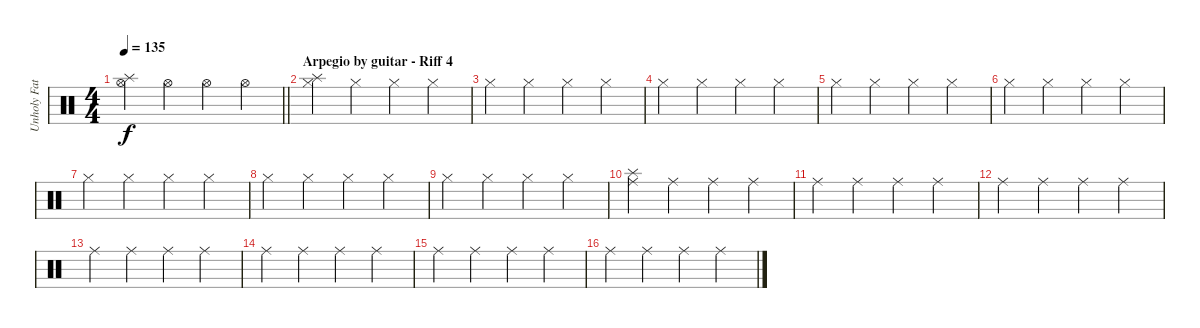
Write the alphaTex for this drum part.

\track ("Unholy Father" "Unholy Fat") {instrument percussion}
\staff {score}
\articulation defaults
\ts (4 4)
\tempo 135
\clef neutral
\barLineRight lightlight
\ks c
("Splash (hit)" "Hi-Hat (open)").4{dy f} "Hi-Hat (open)".4 "Hi-Hat (open)".4 "Hi-Hat (open)".4 |
\section ("" "Arpegio by guitar - Riff 4")
("Splash (hit)" "Hi-Hat (closed)").4 "Hi-Hat (closed)".4 "Hi-Hat (closed)".4 "Hi-Hat (closed)".4 |
"Hi-Hat (closed)".4 "Hi-Hat (closed)".4 "Hi-Hat (closed)".4 "Hi-Hat (closed)".4 |
"Hi-Hat (closed)".4 "Hi-Hat (closed)".4 "Hi-Hat (closed)".4 "Hi-Hat (closed)".4 |
"Hi-Hat (closed)".4 "Hi-Hat (closed)".4 "Hi-Hat (closed)".4 "Hi-Hat (closed)".4 |
"Hi-Hat (closed)".4 "Hi-Hat (closed)".4 "Hi-Hat (closed)".4 "Hi-Hat (closed)".4 |
"Hi-Hat (closed)".4 "Hi-Hat (closed)".4 "Hi-Hat (closed)".4 "Hi-Hat (closed)".4 |
"Hi-Hat (closed)".4 "Hi-Hat (closed)".4 "Hi-Hat (closed)".4 "Hi-Hat (closed)".4 |
"Hi-Hat (closed)".4 "Hi-Hat (closed)".4 "Hi-Hat (closed)".4 "Hi-Hat (closed)".4 |
("Splash (hit)" "Ride (middle)").4 "Ride (middle)".4 "Ride (middle)".4 "Ride (middle)".4 |
"Ride (middle)".4 "Ride (middle)".4 "Ride (middle)".4 "Ride (middle)".4 |
"Ride (middle)".4 "Ride (middle)".4 "Ride (middle)".4 "Ride (middle)".4 |
"Ride (middle)".4 "Ride (middle)".4 "Ride (middle)".4 "Ride (middle)".4 |
"Ride (middle)".4 "Ride (middle)".4 "Ride (middle)".4 "Ride (middle)".4 |
"Ride (middle)".4 "Ride (middle)".4 "Ride (middle)".4 "Ride (middle)".4 |
"Ride (middle)".4 "Ride (middle)".4 "Ride (middle)".4 "Ride (middle)".4
